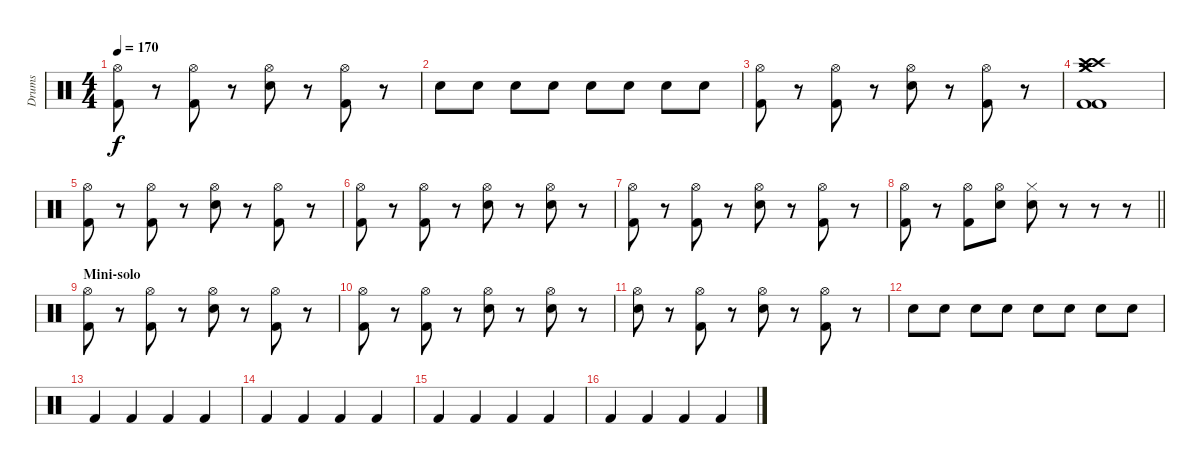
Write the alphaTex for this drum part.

\track ("Drums" "Drums") {instrument percussion}
\staff {score}
\articulation defaults
\ts (4 4)
\tempo 170
\clef neutral
\ks c
("Hi-Hat (open)" "Kick (hit) 2").8{dy f} r.8 ("Hi-Hat (open)" "Kick (hit) 2").8 r.8 ("Hi-Hat (open)" "Electric Snare (hit)").8 r.8 ("Hi-Hat (open)" "Kick (hit) 2").8 r.8 |
"Electric Snare (hit)".8 "Electric Snare (hit)".8 "Electric Snare (hit)".8 "Electric Snare (hit)".8 "Electric Snare (hit)".8 "Electric Snare (hit)".8 "Electric Snare (hit)".8 "Electric Snare (hit)".8 |
("Hi-Hat (open)" "Kick (hit) 2").8 r.8 ("Hi-Hat (open)" "Kick (hit) 2").8 r.8 ("Hi-Hat (open)" "Electric Snare (hit)").8 r.8 ("Hi-Hat (open)" "Kick (hit) 2").8 r.8 |
("Crash high (hit)" "Crash high (hit)" "Crash medium (hit)" "Crash medium (hit)" "Kick (hit) 2" "Kick (hit) 2").1 |
("Hi-Hat (open)" "Kick (hit) 2").8 r.8 ("Hi-Hat (open)" "Kick (hit) 2").8 r.8 ("Hi-Hat (open)" "Electric Snare (hit)").8 r.8 ("Hi-Hat (open)" "Kick (hit) 2").8 r.8 |
("Hi-Hat (open)" "Kick (hit) 2").8 r.8 ("Hi-Hat (open)" "Kick (hit) 2").8 r.8 ("Hi-Hat (open)" "Electric Snare (hit)").8 r.8 ("Hi-Hat (open)" "Electric Snare (hit)").8 r.8 |
("Hi-Hat (open)" "Kick (hit) 2").8 r.8 ("Hi-Hat (open)" "Kick (hit) 2").8 r.8 ("Hi-Hat (open)" "Electric Snare (hit)").8 r.8 ("Hi-Hat (open)" "Kick (hit) 2").8 r.8 |
\barLineRight lightlight
("Hi-Hat (open)" "Kick (hit) 2").8 r.8 ("Hi-Hat (open)" "Kick (hit) 2").8 ("Hi-Hat (open)" "Electric Snare (hit)").8 ("Hi-Hat (closed)" "Electric Snare (hit)").8 r.8 r.8 r.8 |
\section ("" "Mini-solo")
("Hi-Hat (open)" "Kick (hit) 2").8 r.8 ("Hi-Hat (open)" "Kick (hit) 2").8 r.8 ("Hi-Hat (open)" "Electric Snare (hit)").8 r.8 ("Hi-Hat (open)" "Kick (hit) 2").8 r.8 |
("Hi-Hat (open)" "Kick (hit) 2").8 r.8 ("Hi-Hat (open)" "Kick (hit) 2").8 r.8 ("Hi-Hat (open)" "Electric Snare (hit)").8 r.8 ("Hi-Hat (open)" "Electric Snare (hit)").8 r.8 |
("Hi-Hat (open)" "Electric Snare (hit)").8 r.8 ("Hi-Hat (open)" "Kick (hit) 2").8 r.8 ("Hi-Hat (open)" "Electric Snare (hit)").8 r.8 ("Hi-Hat (open)" "Kick (hit) 2").8 r.8 |
"Electric Snare (hit)".8 "Electric Snare (hit)".8 "Electric Snare (hit)".8 "Electric Snare (hit)".8 "Electric Snare (hit)".8 "Electric Snare (hit)".8 "Electric Snare (hit)".8 "Electric Snare (hit)".8 |
"Kick (hit) 2".4 "Kick (hit) 2".4 "Kick (hit) 2".4 "Kick (hit) 2".4 |
"Kick (hit) 2".4 "Kick (hit) 2".4 "Kick (hit) 2".4 "Kick (hit) 2".4 |
"Kick (hit) 2".4 "Kick (hit) 2".4 "Kick (hit) 2".4 "Kick (hit) 2".4 |
"Kick (hit) 2".4 "Kick (hit) 2".4 "Kick (hit) 2".4 "Kick (hit) 2".4
